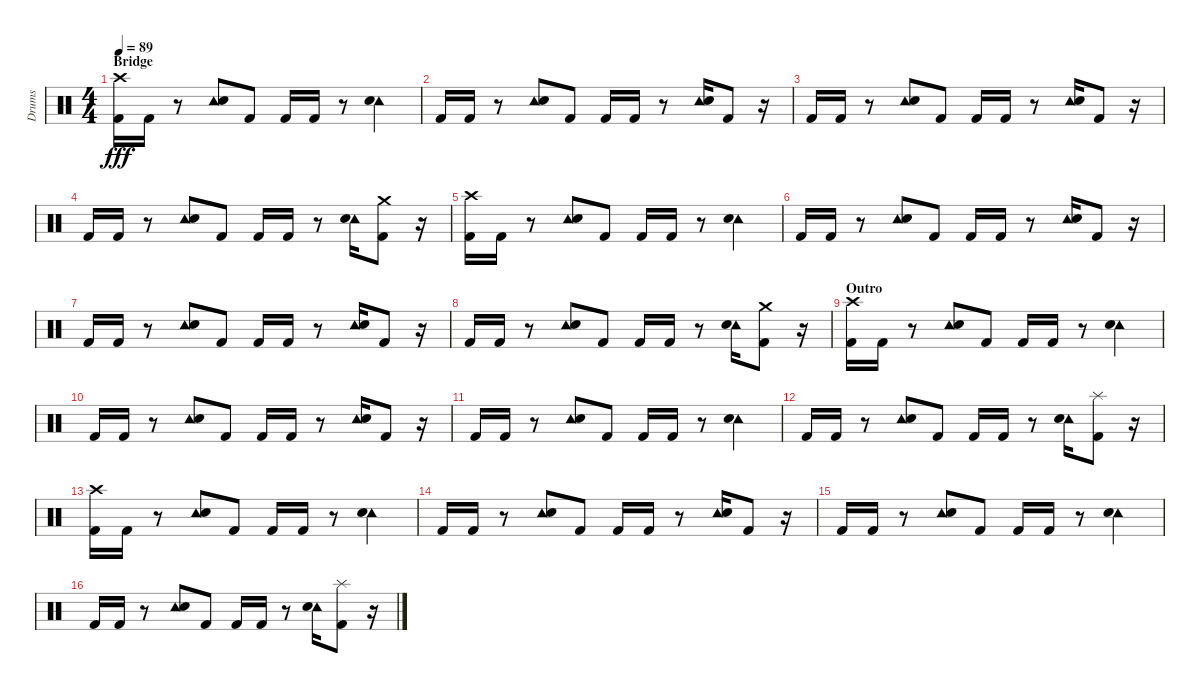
\track ("Drums" "Drums") {instrument percussion}
\staff {score}
\articulation defaults
\ts (4 4)
\section ("" "Bridge")
\tempo 89
\clef neutral
\ks c
("Crash high (hit)" "Kick (hit) 2").16{dy fff} "Kick (hit) 2".16 r.8 ("Tambourine (hit)" "Electric Snare (hit)").8 "Kick (hit) 2".8 "Kick (hit) 2".16 "Kick (hit) 2".16 r.8 ("Tambourine (hit)" "Electric Snare (hit)").4 |
"Kick (hit) 2".16 "Kick (hit) 2".16 r.8 ("Tambourine (hit)" "Electric Snare (hit)").8 "Kick (hit) 2".8 "Kick (hit) 2".16 "Kick (hit) 2".16 r.8 ("Tambourine (hit)" "Electric Snare (hit)").16 "Kick (hit) 2".8 r.16 |
"Kick (hit) 2".16 "Kick (hit) 2".16 r.8 ("Tambourine (hit)" "Electric Snare (hit)").8 "Kick (hit) 2".8 "Kick (hit) 2".16 "Kick (hit) 2".16 r.8 ("Tambourine (hit)" "Electric Snare (hit)").16 "Kick (hit) 2".8 r.16 |
"Kick (hit) 2".16 "Kick (hit) 2".16 r.8 ("Tambourine (hit)" "Electric Snare (hit)").8 "Kick (hit) 2".8 "Kick (hit) 2".16 "Kick (hit) 2".16 r.8 ("Tambourine (hit)" "Electric Snare (hit)").16 ("Crash medium (hit)" "Kick (hit) 2").8 r.16 |
("Crash high (hit)" "Kick (hit) 2").16 "Kick (hit) 2".16 r.8 ("Tambourine (hit)" "Electric Snare (hit)").8 "Kick (hit) 2".8 "Kick (hit) 2".16 "Kick (hit) 2".16 r.8 ("Tambourine (hit)" "Electric Snare (hit)").4 |
"Kick (hit) 2".16 "Kick (hit) 2".16 r.8 ("Tambourine (hit)" "Electric Snare (hit)").8 "Kick (hit) 2".8 "Kick (hit) 2".16 "Kick (hit) 2".16 r.8 ("Tambourine (hit)" "Electric Snare (hit)").16 "Kick (hit) 2".8 r.16 |
"Kick (hit) 2".16 "Kick (hit) 2".16 r.8 ("Tambourine (hit)" "Electric Snare (hit)").8 "Kick (hit) 2".8 "Kick (hit) 2".16 "Kick (hit) 2".16 r.8 ("Tambourine (hit)" "Electric Snare (hit)").16 "Kick (hit) 2".8 r.16 |
"Kick (hit) 2".16 "Kick (hit) 2".16 r.8 ("Tambourine (hit)" "Electric Snare (hit)").8 "Kick (hit) 2".8 "Kick (hit) 2".16 "Kick (hit) 2".16 r.8 ("Tambourine (hit)" "Electric Snare (hit)").16 ("Crash medium (hit)" "Kick (hit) 2").8 r.16 |
\section ("" "Outro")
("Crash high (hit)" "Kick (hit) 2").16 "Kick (hit) 2".16 r.8 ("Tambourine (hit)" "Electric Snare (hit)").8 "Kick (hit) 2".8 "Kick (hit) 2".16 "Kick (hit) 2".16 r.8 ("Tambourine (hit)" "Electric Snare (hit)").4 |
"Kick (hit) 2".16 "Kick (hit) 2".16 r.8 ("Tambourine (hit)" "Electric Snare (hit)").8 "Kick (hit) 2".8 "Kick (hit) 2".16 "Kick (hit) 2".16 r.8 ("Tambourine (hit)" "Electric Snare (hit)").16 "Kick (hit) 2".8 r.16 |
"Kick (hit) 2".16 "Kick (hit) 2".16 r.8 ("Tambourine (hit)" "Electric Snare (hit)").8 "Kick (hit) 2".8 "Kick (hit) 2".16 "Kick (hit) 2".16 r.8 ("Tambourine (hit)" "Electric Snare (hit)").4 |
"Kick (hit) 2".16 "Kick (hit) 2".16 r.8 ("Tambourine (hit)" "Electric Snare (hit)").8 "Kick (hit) 2".8 "Kick (hit) 2".16 "Kick (hit) 2".16 r.8 ("Tambourine (hit)" "Electric Snare (hit)").16 ("Splash (hit)" "Kick (hit) 2").8 r.16 |
("Crash high (hit)" "Kick (hit) 2").16 "Kick (hit) 2".16 r.8 ("Tambourine (hit)" "Electric Snare (hit)").8 "Kick (hit) 2".8 "Kick (hit) 2".16 "Kick (hit) 2".16 r.8 ("Tambourine (hit)" "Electric Snare (hit)").4 |
"Kick (hit) 2".16 "Kick (hit) 2".16 r.8 ("Tambourine (hit)" "Electric Snare (hit)").8 "Kick (hit) 2".8 "Kick (hit) 2".16 "Kick (hit) 2".16 r.8 ("Tambourine (hit)" "Electric Snare (hit)").16 "Kick (hit) 2".8 r.16 |
"Kick (hit) 2".16 "Kick (hit) 2".16 r.8 ("Tambourine (hit)" "Electric Snare (hit)").8 "Kick (hit) 2".8 "Kick (hit) 2".16 "Kick (hit) 2".16 r.8 ("Tambourine (hit)" "Electric Snare (hit)").4 |
"Kick (hit) 2".16 "Kick (hit) 2".16 r.8 ("Tambourine (hit)" "Electric Snare (hit)").8 "Kick (hit) 2".8 "Kick (hit) 2".16 "Kick (hit) 2".16 r.8 ("Tambourine (hit)" "Electric Snare (hit)").16 ("Splash (hit)" "Kick (hit) 2").8 r.16
